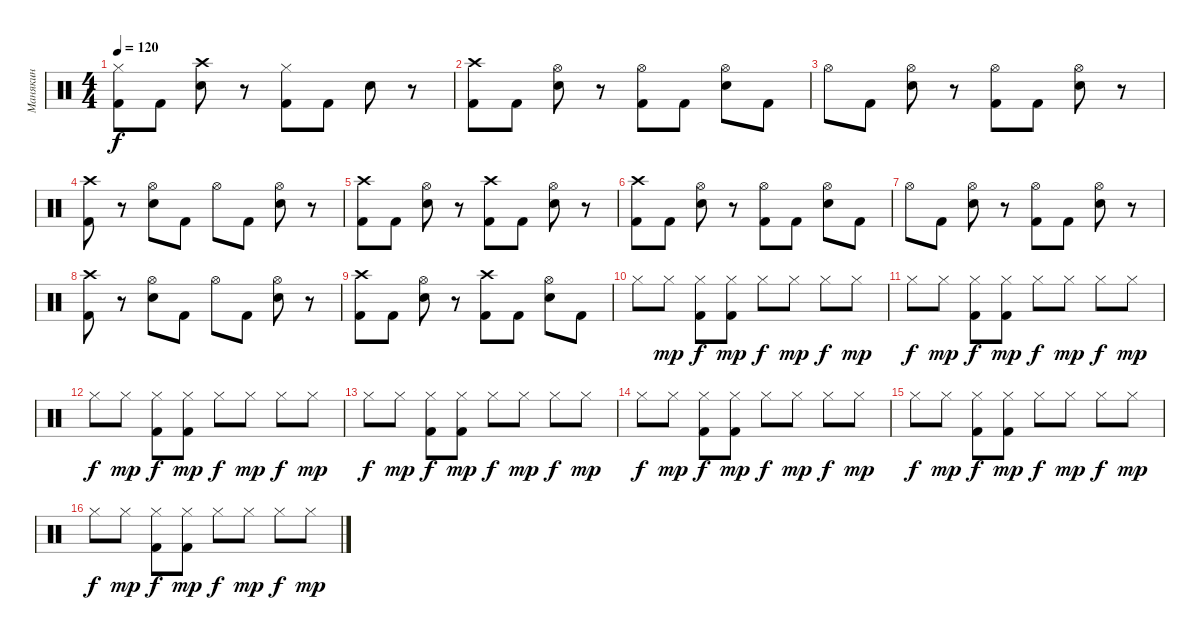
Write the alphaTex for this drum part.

\track ("Манякин" "Манякин") {instrument percussion}
\staff {score}
\articulation defaults
\ts (4 4)
\tempo 120
\clef neutral
\ks c
("Hi-Hat (closed)" "Kick (hit) 2").8{dy f} "Kick (hit) 2".8 ("Crash high (hit)" "Electric Snare (hit)").8 r.8 ("Hi-Hat (closed)" "Kick (hit) 2").8 "Kick (hit) 2".8 "Electric Snare (hit)".8 r.8 |
("Crash high (hit)" "Kick (hit) 2").8 "Kick (hit) 2".8 ("Hi-Hat (open)" "Electric Snare (hit)").8 r.8 ("Hi-Hat (open)" "Kick (hit) 2").8 "Kick (hit) 2".8 ("Hi-Hat (open)" "Electric Snare (hit)").8 "Kick (hit) 2".8 |
"Hi-Hat (open)".8 "Kick (hit) 2".8 ("Hi-Hat (open)" "Electric Snare (hit)").8 r.8 ("Hi-Hat (open)" "Kick (hit) 2").8 "Kick (hit) 2".8 ("Hi-Hat (open)" "Electric Snare (hit)").8 r.8 |
("Crash high (hit)" "Kick (hit) 2").8 r.8 ("Hi-Hat (open)" "Electric Snare (hit)").8 "Kick (hit) 2".8 "Hi-Hat (open)".8 "Kick (hit) 2".8 ("Hi-Hat (open)" "Electric Snare (hit)").8 r.8 |
("Crash high (hit)" "Kick (hit) 2").8 "Kick (hit) 2".8 ("Hi-Hat (open)" "Electric Snare (hit)").8 r.8 ("Crash high (hit)" "Kick (hit) 2").8 "Kick (hit) 2".8 ("Hi-Hat (open)" "Electric Snare (hit)").8 r.8 |
("Crash high (hit)" "Kick (hit) 2").8 "Kick (hit) 2".8 ("Hi-Hat (open)" "Electric Snare (hit)").8 r.8 ("Hi-Hat (open)" "Kick (hit) 2").8 "Kick (hit) 2".8 ("Hi-Hat (open)" "Electric Snare (hit)").8 "Kick (hit) 2".8 |
"Hi-Hat (open)".8 "Kick (hit) 2".8 ("Hi-Hat (open)" "Electric Snare (hit)").8 r.8 ("Hi-Hat (open)" "Kick (hit) 2").8 "Kick (hit) 2".8 ("Hi-Hat (open)" "Electric Snare (hit)").8 r.8 |
("Crash high (hit)" "Kick (hit) 2").8 r.8 ("Hi-Hat (open)" "Electric Snare (hit)").8 "Kick (hit) 2".8 "Hi-Hat (open)".8 "Kick (hit) 2".8 ("Hi-Hat (open)" "Electric Snare (hit)").8 r.8 |
("Crash high (hit)" "Kick (hit) 2").8 "Kick (hit) 2".8 ("Hi-Hat (open)" "Electric Snare (hit)").8 r.8 ("Crash high (hit)" "Kick (hit) 2").8 "Kick (hit) 2".8 ("Hi-Hat (open)" "Electric Snare (hit)").8 "Kick (hit) 2".8 |
"Hi-Hat (closed)".8 "Hi-Hat (closed)".8{dy mp} ("Hi-Hat (closed)" "Kick (hit) 2").8{dy f} ("Hi-Hat (closed)" "Kick (hit) 2").8{dy mp} "Hi-Hat (closed)".8{dy f} "Hi-Hat (closed)".8{dy mp} "Hi-Hat (closed)".8{dy f} "Hi-Hat (closed)".8{dy mp} |
"Hi-Hat (closed)".8{dy f} "Hi-Hat (closed)".8{dy mp} ("Hi-Hat (closed)" "Kick (hit) 2").8{dy f} ("Hi-Hat (closed)" "Kick (hit) 2").8{dy mp} "Hi-Hat (closed)".8{dy f} "Hi-Hat (closed)".8{dy mp} "Hi-Hat (closed)".8{dy f} "Hi-Hat (closed)".8{dy mp} |
"Hi-Hat (closed)".8{dy f} "Hi-Hat (closed)".8{dy mp} ("Hi-Hat (closed)" "Kick (hit) 2").8{dy f} ("Hi-Hat (closed)" "Kick (hit) 2").8{dy mp} "Hi-Hat (closed)".8{dy f} "Hi-Hat (closed)".8{dy mp} "Hi-Hat (closed)".8{dy f} "Hi-Hat (closed)".8{dy mp} |
"Hi-Hat (closed)".8{dy f} "Hi-Hat (closed)".8{dy mp} ("Hi-Hat (closed)" "Kick (hit) 2").8{dy f} ("Hi-Hat (closed)" "Kick (hit) 2").8{dy mp} "Hi-Hat (closed)".8{dy f} "Hi-Hat (closed)".8{dy mp} "Hi-Hat (closed)".8{dy f} "Hi-Hat (closed)".8{dy mp} |
"Hi-Hat (closed)".8{dy f} "Hi-Hat (closed)".8{dy mp} ("Hi-Hat (closed)" "Kick (hit) 2").8{dy f} ("Hi-Hat (closed)" "Kick (hit) 2").8{dy mp} "Hi-Hat (closed)".8{dy f} "Hi-Hat (closed)".8{dy mp} "Hi-Hat (closed)".8{dy f} "Hi-Hat (closed)".8{dy mp} |
"Hi-Hat (closed)".8{dy f} "Hi-Hat (closed)".8{dy mp} ("Hi-Hat (closed)" "Kick (hit) 2").8{dy f} ("Hi-Hat (closed)" "Kick (hit) 2").8{dy mp} "Hi-Hat (closed)".8{dy f} "Hi-Hat (closed)".8{dy mp} "Hi-Hat (closed)".8{dy f} "Hi-Hat (closed)".8{dy mp} |
"Hi-Hat (closed)".8{dy f} "Hi-Hat (closed)".8{dy mp} ("Hi-Hat (closed)" "Kick (hit) 2").8{dy f} ("Hi-Hat (closed)" "Kick (hit) 2").8{dy mp} "Hi-Hat (closed)".8{dy f} "Hi-Hat (closed)".8{dy mp} "Hi-Hat (closed)".8{dy f} "Hi-Hat (closed)".8{dy mp}
